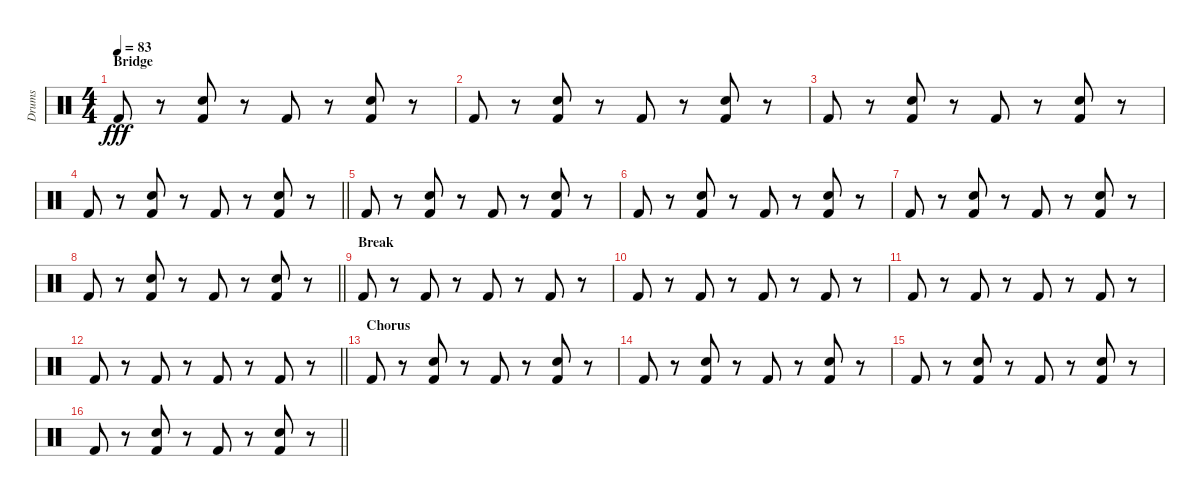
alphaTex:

\track ("Drums" "Drums") {instrument percussion}
\staff {score}
\articulation defaults
\ts (4 4)
\section ("" "Bridge")
\tempo 83
\clef neutral
\ks c "Kick (hit) 2".8{dy fff}
r.8 ("Hand Clap (hit)" "Kick (hit) 2").8 r.8 "Kick (hit) 2".8 r.8 ("Hand Clap (hit)" "Kick (hit) 2").8 r.8 |
"Kick (hit) 2".8 r.8 ("Hand Clap (hit)" "Kick (hit) 2").8 r.8 "Kick (hit) 2".8 r.8 ("Hand Clap (hit)" "Kick (hit) 2").8 r.8 |
"Kick (hit) 2".8 r.8 ("Hand Clap (hit)" "Kick (hit) 2").8 r.8 "Kick (hit) 2".8 r.8 ("Hand Clap (hit)" "Kick (hit) 2").8 r.8 |
\barLineRight lightlight "Kick (hit) 2".8
r.8 ("Hand Clap (hit)" "Kick (hit) 2").8 r.8 "Kick (hit) 2".8 r.8 ("Hand Clap (hit)" "Kick (hit) 2").8 r.8 |
"Kick (hit) 2".8 r.8 ("Hand Clap (hit)" "Kick (hit) 2").8 r.8 "Kick (hit) 2".8 r.8 ("Hand Clap (hit)" "Kick (hit) 2").8 r.8 |
"Kick (hit) 2".8 r.8 ("Hand Clap (hit)" "Kick (hit) 2").8 r.8 "Kick (hit) 2".8 r.8 ("Hand Clap (hit)" "Kick (hit) 2").8 r.8 |
"Kick (hit) 2".8 r.8 ("Hand Clap (hit)" "Kick (hit) 2").8 r.8 "Kick (hit) 2".8 r.8 ("Hand Clap (hit)" "Kick (hit) 2").8 r.8 |
\barLineRight lightlight "Kick (hit) 2".8
r.8 ("Hand Clap (hit)" "Kick (hit) 2").8 r.8 "Kick (hit) 2".8 r.8 ("Hand Clap (hit)" "Kick (hit) 2").8 r.8 |
\section ("" "Break")
"Kick (hit) 2".8 r.8 "Kick (hit) 2".8 r.8 "Kick (hit) 2".8 r.8 "Kick (hit) 2".8 r.8 |
"Kick (hit) 2".8 r.8 "Kick (hit) 2".8 r.8 "Kick (hit) 2".8 r.8 "Kick (hit) 2".8 r.8 |
"Kick (hit) 2".8 r.8 "Kick (hit) 2".8 r.8 "Kick (hit) 2".8 r.8 "Kick (hit) 2".8 r.8 |
\barLineRight lightlight "Kick (hit) 2".8
r.8 "Kick (hit) 2".8 r.8 "Kick (hit) 2".8 r.8 "Kick (hit) 2".8 r.8 |
\section ("" "Chorus")
"Kick (hit) 2".8 r.8 ("Hand Clap (hit)" "Kick (hit) 2").8 r.8 "Kick (hit) 2".8 r.8 ("Hand Clap (hit)" "Kick (hit) 2").8 r.8 |
"Kick (hit) 2".8 r.8 ("Hand Clap (hit)" "Kick (hit) 2").8 r.8 "Kick (hit) 2".8 r.8 ("Hand Clap (hit)" "Kick (hit) 2").8 r.8 |
"Kick (hit) 2".8 r.8 ("Hand Clap (hit)" "Kick (hit) 2").8 r.8 "Kick (hit) 2".8 r.8 ("Hand Clap (hit)" "Kick (hit) 2").8 r.8 |
\barLineRight lightlight "Kick (hit) 2".8
r.8 ("Hand Clap (hit)" "Kick (hit) 2").8 r.8 "Kick (hit) 2".8 r.8 ("Hand Clap (hit)" "Kick (hit) 2").8 r.8
